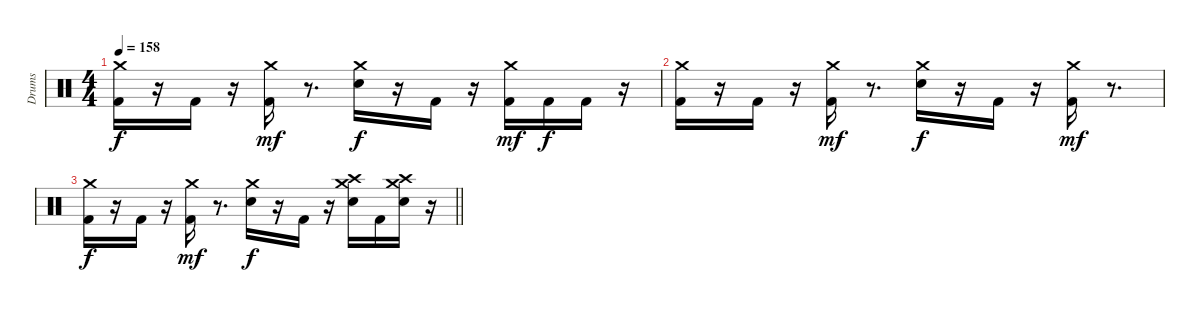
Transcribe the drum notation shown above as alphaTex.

\track ("Drums" "Drums") {instrument percussion}
\staff {score}
\articulation defaults
\ts (4 4)
\tempo 158
\clef neutral
\ks c
("Kick (hit) 2" "Crash medium (hit)").16{dy f} r.16 "Kick (hit) 2".16 r.16 ("Kick (hit) 2" "Crash medium (hit)").16{dy mf} r.8{d} ("Snare (hit) 2" "Crash medium (hit)").16{dy f} r.16 "Kick (hit) 2".16 r.16 ("Kick (hit) 2" "Crash medium (hit)").16{dy mf} "Kick (hit) 2".16{dy f} "Kick (hit) 2".16 r.16 |
("Kick (hit) 2" "Crash medium (hit)").16 r.16 "Kick (hit) 2".16 r.16 ("Kick (hit) 2" "Crash medium (hit)").16{dy mf} r.8{d} ("Snare (hit) 2" "Crash medium (hit)").16{dy f} r.16 "Kick (hit) 2".16 r.16 ("Kick (hit) 2" "Crash medium (hit)").16{dy mf} r.8{d} |
\barLineRight lightlight
("Kick (hit) 2" "Crash medium (hit)").16{dy f} r.16 "Kick (hit) 2".16 r.16 ("Kick (hit) 2" "Crash medium (hit)").16{dy mf} r.8{d} ("Snare (hit) 2" "Crash medium (hit)").16{dy f} r.16 "Kick (hit) 2".16 r.16 ("Snare (hit) 2" "Crash high (hit)" "Crash medium (hit)").16 "Kick (hit) 2".16 ("Snare (hit) 2" "Crash high (hit)" "Crash medium (hit)").16 r.16
